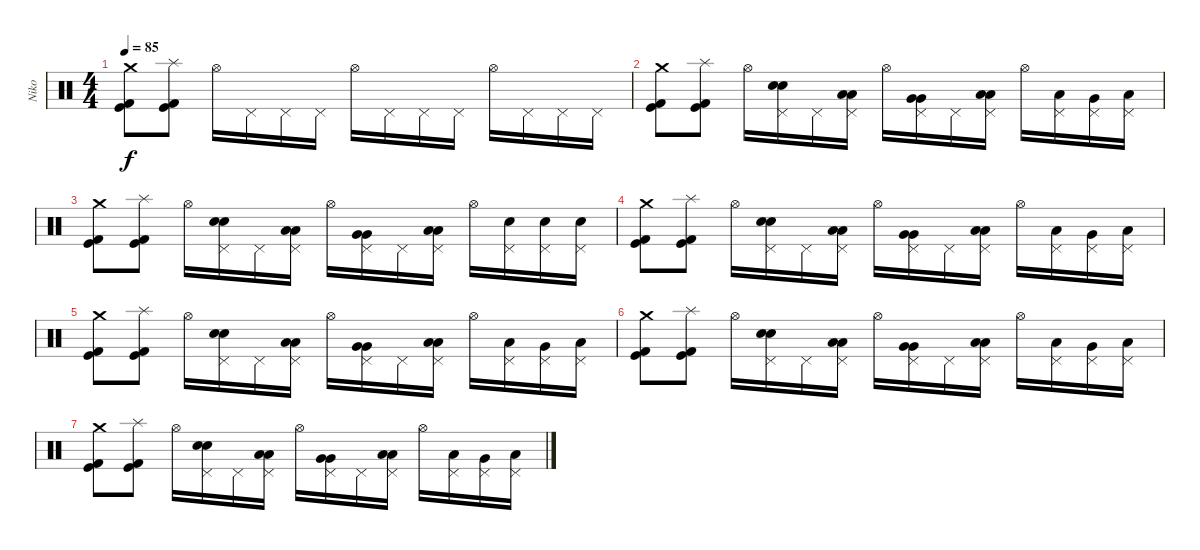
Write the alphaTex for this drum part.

\track ("Niko" "Niko") {instrument percussion}
\staff {score}
\articulation defaults
\ts (4 4)
\tempo 85
\clef neutral
\ks c
("Crash medium (hit)" "Kick (hit) 2" "Kick (hit)").8{dy f} ("Splash (hit)" "Kick (hit)" "Kick (hit) 2").8 "Hi-Hat (open)".16 "Pedal Hi-Hat (hit)".16 "Pedal Hi-Hat (hit)".16 "Pedal Hi-Hat (hit)".16 "Hi-Hat (open)".16 "Pedal Hi-Hat (hit)".16 "Pedal Hi-Hat (hit)".16 "Pedal Hi-Hat (hit)".16 "Hi-Hat (open)".16 "Pedal Hi-Hat (hit)".16 "Pedal Hi-Hat (hit)".16 "Pedal Hi-Hat (hit)".16 |
("Crash medium (hit)" "Kick (hit) 2" "Kick (hit)").8 ("Splash (hit)" "Kick (hit)" "Kick (hit) 2").8 "Hi-Hat (open)".16 ("Pedal Hi-Hat (hit)" "Electric Snare (hit)" "Electric Snare (hit)").16 "Pedal Hi-Hat (hit)".16 ("Pedal Hi-Hat (hit)" "Low Tom (hit)" "Low Tom (hit)").16 "Hi-Hat (open)".16 ("Pedal Hi-Hat (hit)" "Very Low Tom (hit)" "Very Low Tom (hit)").16 "Pedal Hi-Hat (hit)".16 ("Pedal Hi-Hat (hit)" "Low Floor Tom (hit)" "Low Floor Tom (hit)").16 "Hi-Hat (open)".16 ("Pedal Hi-Hat (hit)" "Low Tom (hit)").16 ("Pedal Hi-Hat (hit)" "Very Low Tom (hit)").16 ("Pedal Hi-Hat (hit)" "Low Floor Tom (hit)").16 |
("Crash medium (hit)" "Kick (hit) 2" "Kick (hit)").8 ("Splash (hit)" "Kick (hit)" "Kick (hit) 2").8 "Hi-Hat (open)".16 ("Pedal Hi-Hat (hit)" "Electric Snare (hit)" "Electric Snare (hit)").16 "Pedal Hi-Hat (hit)".16 ("Pedal Hi-Hat (hit)" "Low Tom (hit)" "Low Tom (hit)").16 "Hi-Hat (open)".16 ("Pedal Hi-Hat (hit)" "Very Low Tom (hit)" "Very Low Tom (hit)").16 "Pedal Hi-Hat (hit)".16 ("Pedal Hi-Hat (hit)" "Low Floor Tom (hit)" "Low Floor Tom (hit)").16 "Hi-Hat (open)".16 ("Pedal Hi-Hat (hit)" "Electric Snare (hit)").16 ("Pedal Hi-Hat (hit)" "Electric Snare (hit)").16 ("Pedal Hi-Hat (hit)" "Electric Snare (hit)").16 |
("Crash medium (hit)" "Kick (hit) 2" "Kick (hit)").8 ("Splash (hit)" "Kick (hit)" "Kick (hit) 2").8 "Hi-Hat (open)".16 ("Pedal Hi-Hat (hit)" "Electric Snare (hit)" "Electric Snare (hit)").16 "Pedal Hi-Hat (hit)".16 ("Pedal Hi-Hat (hit)" "Low Tom (hit)" "Low Tom (hit)").16 "Hi-Hat (open)".16 ("Pedal Hi-Hat (hit)" "Very Low Tom (hit)" "Very Low Tom (hit)").16 "Pedal Hi-Hat (hit)".16 ("Pedal Hi-Hat (hit)" "Low Floor Tom (hit)" "Low Floor Tom (hit)").16 "Hi-Hat (open)".16 ("Pedal Hi-Hat (hit)" "Low Tom (hit)").16 ("Pedal Hi-Hat (hit)" "Very Low Tom (hit)").16 ("Pedal Hi-Hat (hit)" "Low Floor Tom (hit)").16 |
("Crash medium (hit)" "Kick (hit) 2" "Kick (hit)").8 ("Splash (hit)" "Kick (hit)" "Kick (hit) 2").8 "Hi-Hat (open)".16 ("Pedal Hi-Hat (hit)" "Electric Snare (hit)" "Electric Snare (hit)").16 "Pedal Hi-Hat (hit)".16 ("Pedal Hi-Hat (hit)" "Low Tom (hit)" "Low Tom (hit)").16 "Hi-Hat (open)".16 ("Pedal Hi-Hat (hit)" "Very Low Tom (hit)" "Very Low Tom (hit)").16 "Pedal Hi-Hat (hit)".16 ("Pedal Hi-Hat (hit)" "Low Floor Tom (hit)" "Low Floor Tom (hit)").16 "Hi-Hat (open)".16 ("Pedal Hi-Hat (hit)" "Low Tom (hit)").16 ("Pedal Hi-Hat (hit)" "Very Low Tom (hit)").16 ("Pedal Hi-Hat (hit)" "Low Floor Tom (hit)").16 |
("Crash medium (hit)" "Kick (hit) 2" "Kick (hit)").8 ("Splash (hit)" "Kick (hit)" "Kick (hit) 2").8 "Hi-Hat (open)".16 ("Pedal Hi-Hat (hit)" "Electric Snare (hit)" "Electric Snare (hit)").16 "Pedal Hi-Hat (hit)".16 ("Pedal Hi-Hat (hit)" "Low Tom (hit)" "Low Tom (hit)").16 "Hi-Hat (open)".16 ("Pedal Hi-Hat (hit)" "Very Low Tom (hit)" "Very Low Tom (hit)").16 "Pedal Hi-Hat (hit)".16 ("Pedal Hi-Hat (hit)" "Low Floor Tom (hit)" "Low Floor Tom (hit)").16 "Hi-Hat (open)".16 ("Pedal Hi-Hat (hit)" "Low Tom (hit)").16 ("Pedal Hi-Hat (hit)" "Very Low Tom (hit)").16 ("Pedal Hi-Hat (hit)" "Low Floor Tom (hit)").16 |
("Crash medium (hit)" "Kick (hit) 2" "Kick (hit)").8 ("Splash (hit)" "Kick (hit)" "Kick (hit) 2").8 "Hi-Hat (open)".16 ("Pedal Hi-Hat (hit)" "Electric Snare (hit)" "Electric Snare (hit)").16 "Pedal Hi-Hat (hit)".16 ("Pedal Hi-Hat (hit)" "Low Tom (hit)" "Low Tom (hit)").16 "Hi-Hat (open)".16 ("Pedal Hi-Hat (hit)" "Very Low Tom (hit)" "Very Low Tom (hit)").16 "Pedal Hi-Hat (hit)".16 ("Pedal Hi-Hat (hit)" "Low Floor Tom (hit)" "Low Floor Tom (hit)").16 "Hi-Hat (open)".16 ("Pedal Hi-Hat (hit)" "Low Tom (hit)").16 ("Pedal Hi-Hat (hit)" "Very Low Tom (hit)").16 ("Pedal Hi-Hat (hit)" "Low Floor Tom (hit)").16
